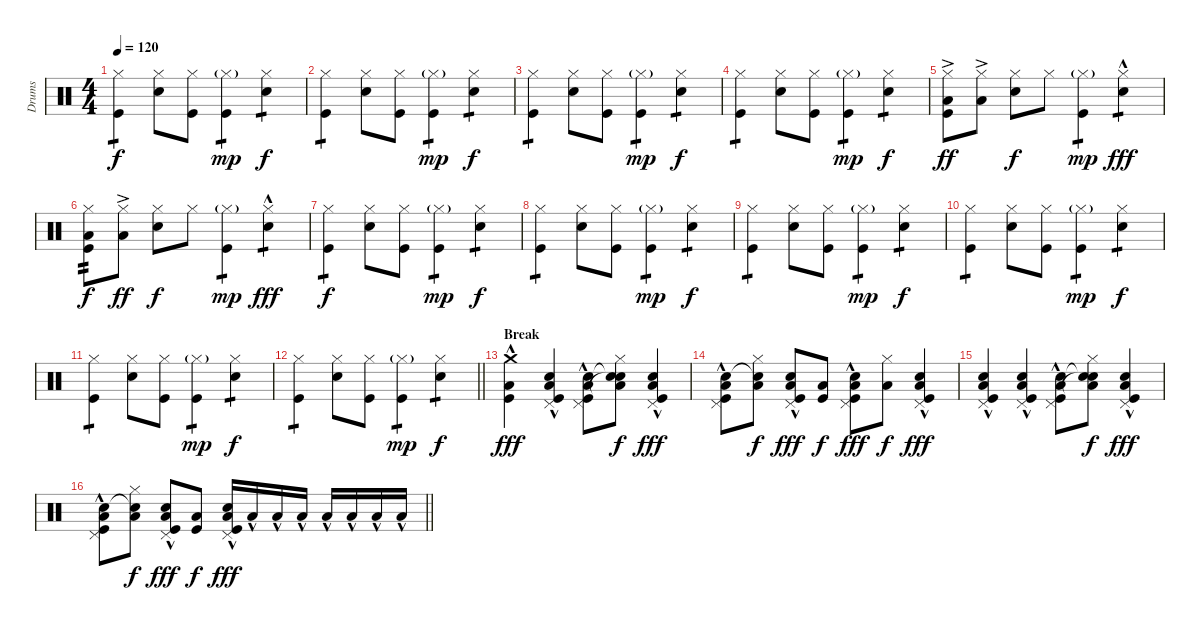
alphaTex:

\track ("Drums" "Drums") {instrument percussion}
\staff {score}
\articulation defaults
\ts (4 4)
\tempo 120
\clef neutral
\ks c
("Hi-Hat (closed)" "Kick (hit)").4{tp 1 dy f} ("Hi-Hat (closed)" "Snare (hit) 2").8 ("Hi-Hat (closed)" "Kick (hit)").8 ("Hi-Hat (closed)"{g} "Kick (hit)").4{tp 1 dy mp} ("Hi-Hat (closed)" "Snare (hit) 2").4{tp 1 dy f} |
("Hi-Hat (closed)" "Kick (hit)").4{tp 1} ("Hi-Hat (closed)" "Snare (hit) 2").8 ("Hi-Hat (closed)" "Kick (hit)").8 ("Hi-Hat (closed)"{g} "Kick (hit)").4{tp 1 dy mp} ("Hi-Hat (closed)" "Snare (hit) 2").4{tp 1 dy f} |
("Hi-Hat (closed)" "Kick (hit)").4{tp 1} ("Hi-Hat (closed)" "Snare (hit) 2").8 ("Hi-Hat (closed)" "Kick (hit)").8 ("Hi-Hat (closed)"{g} "Kick (hit)").4{tp 1 dy mp} ("Hi-Hat (closed)" "Snare (hit) 2").4{tp 1 dy f} |
("Hi-Hat (closed)" "Kick (hit)").4{tp 1} ("Hi-Hat (closed)" "Snare (hit) 2").8 ("Hi-Hat (closed)" "Kick (hit)").8 ("Hi-Hat (closed)"{g} "Kick (hit)").4{tp 1 dy mp} ("Hi-Hat (closed)" "Snare (hit) 2").4{tp 1 dy f} |
("Hi-Hat (closed)" "Low Tom (hit)"{ac} "Kick (hit)").8{dy ff} ("Hi-Hat (closed)" "Low Tom (hit)"{ac}).8 ("Hi-Hat (closed)" "Snare (hit) 2").8{dy f} "Hi-Hat (closed)".8 ("Hi-Hat (closed)"{g} "Kick (hit)").4{tp 1 dy mp} ("Hi-Hat (closed)" "Snare (hit) 2"{hac}).4{tp 1 dy fff} |
("Hi-Hat (closed)" "Low Tom (hit)" "Kick (hit)").8{tp 2 dy f} ("Hi-Hat (closed)" "Low Tom (hit)"{ac}).8{dy ff} ("Hi-Hat (closed)" "Snare (hit) 2").8{dy f} "Hi-Hat (closed)".8 ("Hi-Hat (closed)"{g} "Kick (hit)").4{tp 1 dy mp} ("Hi-Hat (closed)" "Snare (hit) 2"{hac}).4{tp 1 dy fff} |
("Hi-Hat (closed)" "Kick (hit)").4{tp 1 dy f} ("Hi-Hat (closed)" "Snare (hit) 2").8 ("Hi-Hat (closed)" "Kick (hit)").8 ("Hi-Hat (closed)"{g} "Kick (hit)").4{tp 1 dy mp} ("Hi-Hat (closed)" "Snare (hit) 2").4{tp 1 dy f} |
("Hi-Hat (closed)" "Kick (hit)").4{tp 1} ("Hi-Hat (closed)" "Snare (hit) 2").8 ("Hi-Hat (closed)" "Kick (hit)").8 ("Hi-Hat (closed)"{g} "Kick (hit)").4{tp 1 dy mp} ("Hi-Hat (closed)" "Snare (hit) 2").4{tp 1 dy f} |
("Hi-Hat (closed)" "Kick (hit)").4{tp 1} ("Hi-Hat (closed)" "Snare (hit) 2").8 ("Hi-Hat (closed)" "Kick (hit)").8 ("Hi-Hat (closed)"{g} "Kick (hit)").4{tp 1 dy mp} ("Hi-Hat (closed)" "Snare (hit) 2").4{tp 1 dy f} |
("Hi-Hat (closed)" "Kick (hit)").4{tp 1} ("Hi-Hat (closed)" "Snare (hit) 2").8 ("Hi-Hat (closed)" "Kick (hit)").8 ("Hi-Hat (closed)"{g} "Kick (hit)").4{tp 1 dy mp} ("Hi-Hat (closed)" "Snare (hit) 2").4{tp 1 dy f} |
("Hi-Hat (closed)" "Kick (hit)").4{tp 1} ("Hi-Hat (closed)" "Snare (hit) 2").8 ("Hi-Hat (closed)" "Kick (hit)").8 ("Hi-Hat (closed)"{g} "Kick (hit)").4{tp 1 dy mp} ("Hi-Hat (closed)" "Snare (hit) 2").4{tp 1 dy f} |
\barLineRight lightlight
("Hi-Hat (closed)" "Kick (hit)").4{tp 1} ("Hi-Hat (closed)" "Snare (hit) 2").8 ("Hi-Hat (closed)" "Kick (hit)").8 ("Hi-Hat (closed)"{g} "Kick (hit)").4{tp 1 dy mp} ("Hi-Hat (closed)" "Snare (hit) 2").4{tp 1 dy f} |
\section ("" "Break")
("Crash medium (hit)" "Low Tom (hit)"{hac} "Kick (hit)").4{dy fff} ("Pedal Hi-Hat (hit)" "Snare (hit) 2"{hac} "Low Tom (hit)"{hac} "Kick (hit)").4 ("Pedal Hi-Hat (hit)" "Snare (hit) 2"{hac} "Low Tom (hit)"{hac} "Kick (hit)").8 ("Hi-Hat (closed)" "Snare (hit)"{t} "Low Tom (hit)" "Snare (hit)"{t}).8{dy f} ("Pedal Hi-Hat (hit)" "Snare (hit) 2"{hac} "Low Tom (hit)"{hac} "Kick (hit)").4{dy fff} |
("Pedal Hi-Hat (hit)" "Snare (hit) 2"{hac} "Low Tom (hit)"{hac} "Kick (hit)").8 ("Hi-Hat (closed)" "Snare (hit)"{t} "Low Tom (hit)").8{dy f} ("Pedal Hi-Hat (hit)" "Snare (hit) 2"{hac} "Low Tom (hit)"{hac} "Kick (hit)").8{dy fff} ("Low Tom (hit)" "Kick (hit)").8{dy f} ("Pedal Hi-Hat (hit)" "Snare (hit) 2"{hac} "Low Tom (hit)"{hac} "Kick (hit)").8{dy fff} ("Hi-Hat (closed)" "Low Tom (hit)").8{dy f} ("Pedal Hi-Hat (hit)" "Snare (hit) 2"{hac} "Low Tom (hit)"{hac} "Kick (hit)").4{dy fff} |
("Pedal Hi-Hat (hit)" "Snare (hit) 2"{hac} "Low Tom (hit)"{hac} "Kick (hit)").4 ("Pedal Hi-Hat (hit)" "Snare (hit) 2"{hac} "Low Tom (hit)"{hac} "Kick (hit)").4 ("Pedal Hi-Hat (hit)" "Snare (hit) 2"{hac} "Low Tom (hit)"{hac} "Kick (hit)").8 ("Hi-Hat (closed)" "Snare (hit)"{t} "Low Tom (hit)" "Snare (hit)"{t}).8{dy f} ("Pedal Hi-Hat (hit)" "Snare (hit) 2"{hac} "Low Tom (hit)"{hac} "Kick (hit)").4{dy fff} |
\barLineRight lightlight
("Pedal Hi-Hat (hit)" "Snare (hit) 2"{hac} "Low Tom (hit)"{hac} "Kick (hit)").8 ("Hi-Hat (closed)" "Snare (hit)"{t} "Low Tom (hit)").8{dy f} ("Pedal Hi-Hat (hit)" "Snare (hit) 2"{hac} "Low Tom (hit)"{hac} "Kick (hit)").8{dy fff} ("Low Tom (hit)" "Kick (hit)").8{dy f} ("Pedal Hi-Hat (hit)" "Snare (hit) 2"{hac} "Low Tom (hit)"{hac} "Kick (hit)").16{dy fff} "Low Tom (hit)"{hac}.16 "Low Tom (hit)"{hac}.16 "Low Tom (hit)"{hac}.16 "Low Tom (hit)"{hac}.16 "Low Tom (hit)"{hac}.16 "Low Tom (hit)"{hac}.16 "Low Tom (hit)"{hac}.16
